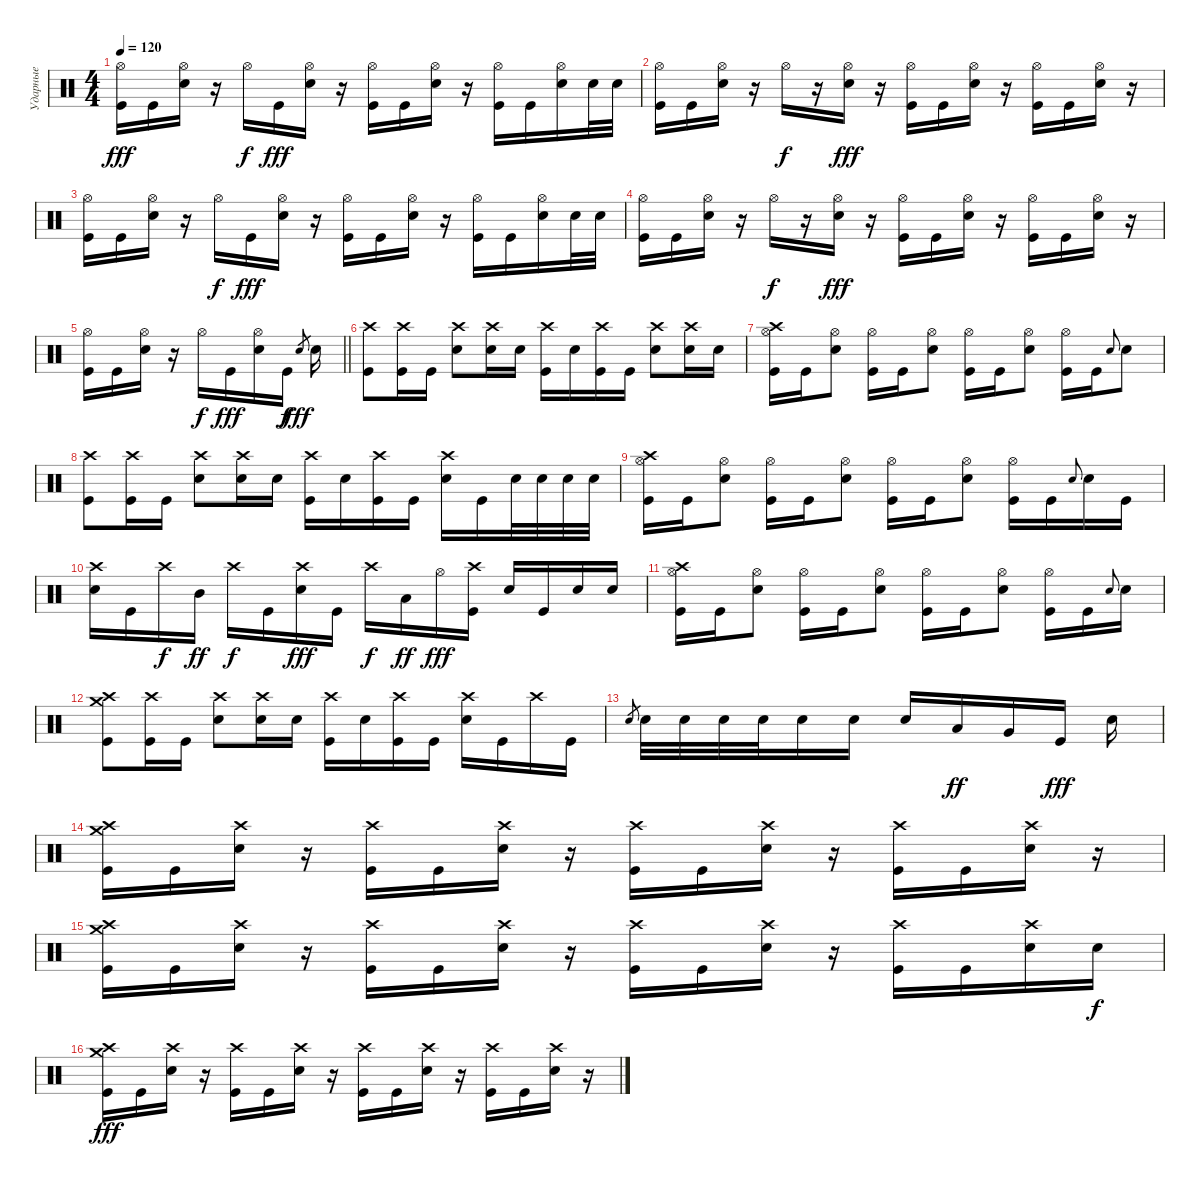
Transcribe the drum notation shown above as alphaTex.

\track ("Ударные" "Ударные") {instrument percussion}
\staff {score}
\articulation defaults
\ts (4 4)
\tempo 120
\clef neutral
\ks c
("Hi-Hat (open)" "Kick (hit)").16{dy fff} "Kick (hit)".16 ("Hi-Hat (open)" "Electric Snare (hit)").16 r.16 "Hi-Hat (open)".16{dy f} "Kick (hit)".16{dy fff} ("Hi-Hat (open)" "Electric Snare (hit)").16 r.16 ("Hi-Hat (open)" "Kick (hit)").16 "Kick (hit)".16 ("Hi-Hat (open)" "Electric Snare (hit)").16 r.16 ("Hi-Hat (open)" "Kick (hit)").16 "Kick (hit)".16 ("Hi-Hat (open)" "Electric Snare (hit)").16 "Electric Snare (hit)".32 "Electric Snare (hit)".32 |
("Hi-Hat (open)" "Kick (hit)").16 "Kick (hit)".16 ("Hi-Hat (open)" "Electric Snare (hit)").16 r.16 "Hi-Hat (open)".16{dy f} r.16 ("Hi-Hat (open)" "Electric Snare (hit)").16{dy fff} r.16 ("Hi-Hat (open)" "Kick (hit)").16 "Kick (hit)".16 ("Hi-Hat (open)" "Electric Snare (hit)").16 r.16 ("Hi-Hat (open)" "Kick (hit)").16 "Kick (hit)".16 ("Hi-Hat (open)" "Electric Snare (hit)").16 r.16 |
("Hi-Hat (open)" "Kick (hit)").16 "Kick (hit)".16 ("Hi-Hat (open)" "Electric Snare (hit)").16 r.16 "Hi-Hat (open)".16{dy f} "Kick (hit)".16{dy fff} ("Hi-Hat (open)" "Electric Snare (hit)").16 r.16 ("Hi-Hat (open)" "Kick (hit)").16 "Kick (hit)".16 ("Hi-Hat (open)" "Electric Snare (hit)").16 r.16 ("Hi-Hat (open)" "Kick (hit)").16 "Kick (hit)".16 ("Hi-Hat (open)" "Electric Snare (hit)").16 "Electric Snare (hit)".32 "Electric Snare (hit)".32 |
("Hi-Hat (open)" "Kick (hit)").16 "Kick (hit)".16 ("Hi-Hat (open)" "Electric Snare (hit)").16 r.16 "Hi-Hat (open)".16{dy f} r.16 ("Hi-Hat (open)" "Electric Snare (hit)").16{dy fff} r.16 ("Hi-Hat (open)" "Kick (hit)").16 "Kick (hit)".16 ("Hi-Hat (open)" "Electric Snare (hit)").16 r.16 ("Hi-Hat (open)" "Kick (hit)").16 "Kick (hit)".16 ("Hi-Hat (open)" "Electric Snare (hit)").16 r.16 |
\barLineRight lightlight
("Hi-Hat (open)" "Kick (hit)").16 "Kick (hit)".16 ("Hi-Hat (open)" "Electric Snare (hit)").16 r.16 "Hi-Hat (open)".16{dy f} "Kick (hit)".16{dy fff} ("Hi-Hat (open)" "Electric Snare (hit)").16 "Kick (hit)".16{dy f} "Electric Snare (hit)".8{gr dy fff} "Electric Snare (hit)".16 |
("Crash high (hit)" "Kick (hit)").8 ("Crash high (hit)" "Kick (hit)").16 "Kick (hit)".16 ("Crash high (hit)" "Electric Snare (hit)").8 ("Crash high (hit)" "Electric Snare (hit)").16 "Electric Snare (hit)".16 ("Crash high (hit)" "Kick (hit)").16 "Electric Snare (hit)".16 ("Crash high (hit)" "Kick (hit)").16 "Kick (hit)".16 ("Crash high (hit)" "Electric Snare (hit)").8 ("Crash high (hit)" "Electric Snare (hit)").16 "Electric Snare (hit)".16 |
("Hi-Hat (open)" "Crash high (hit)" "Kick (hit)").16 "Kick (hit)".16 ("Hi-Hat (open)" "Electric Snare (hit)").8 ("Hi-Hat (open)" "Kick (hit)").16 "Kick (hit)".16 ("Hi-Hat (open)" "Electric Snare (hit)").8 ("Hi-Hat (open)" "Kick (hit)").16 "Kick (hit)".16 ("Hi-Hat (open)" "Electric Snare (hit)").8 ("Hi-Hat (open)" "Kick (hit)").16 "Kick (hit)".16 "Electric Snare (hit)".8{gr onbeat} "Electric Snare (hit)".8 |
("Crash high (hit)" "Kick (hit)").8 ("Crash high (hit)" "Kick (hit)").16 "Kick (hit)".16 ("Crash high (hit)" "Electric Snare (hit)").8 ("Crash high (hit)" "Electric Snare (hit)").16 "Electric Snare (hit)".16 ("Crash high (hit)" "Kick (hit)").16 "Electric Snare (hit)".16 ("Crash high (hit)" "Kick (hit)").16 "Kick (hit)".16 ("Crash high (hit)" "Electric Snare (hit)").16 "Kick (hit)".16 "Electric Snare (hit)".32 "Electric Snare (hit)".32 "Electric Snare (hit)".32 "Electric Snare (hit)".32 |
("Hi-Hat (open)" "Crash high (hit)" "Kick (hit)").16 "Kick (hit)".16 ("Hi-Hat (open)" "Electric Snare (hit)").8 ("Hi-Hat (open)" "Kick (hit)").16 "Kick (hit)".16 ("Hi-Hat (open)" "Electric Snare (hit)").8 ("Hi-Hat (open)" "Kick (hit)").16 "Kick (hit)".16 ("Hi-Hat (open)" "Electric Snare (hit)").8 ("Hi-Hat (open)" "Kick (hit)").16 "Kick (hit)".16 "Electric Snare (hit)".8{gr onbeat} "Electric Snare (hit)".16 "Kick (hit)".16 |
("Crash high (hit)" "Electric Snare (hit)").16 "Kick (hit)".16 "Crash high (hit)".16{dy f} "Mid Tom (hit)".16{dy ff} "Crash high (hit)".16{dy f} "Kick (hit)".16 ("Crash high (hit)" "Electric Snare (hit)").16{dy fff} "Kick (hit)".16 "Crash high (hit)".16{dy f} "Low Tom (hit)".16{dy ff} "Hi-Hat (open)".16{dy fff} ("Crash high (hit)" "Kick (hit)").16 "Electric Snare (hit)".16 "Kick (hit)".16 "Electric Snare (hit)".16 "Electric Snare (hit)".16 |
("Hi-Hat (open)" "Crash high (hit)" "Kick (hit)").16 "Kick (hit)".16 ("Hi-Hat (open)" "Electric Snare (hit)").8 ("Hi-Hat (open)" "Kick (hit)").16 "Kick (hit)".16 ("Hi-Hat (open)" "Electric Snare (hit)").8 ("Hi-Hat (open)" "Kick (hit)").16 "Kick (hit)".16 ("Hi-Hat (open)" "Electric Snare (hit)").8 ("Hi-Hat (open)" "Kick (hit)").16 "Kick (hit)".16 "Electric Snare (hit)".8{gr onbeat} "Electric Snare (hit)".16 |
("Crash medium (hit)" "Crash high (hit)" "Kick (hit)").8 ("Crash high (hit)" "Kick (hit)").16 "Kick (hit)".16 ("Crash high (hit)" "Electric Snare (hit)").8 ("Crash high (hit)" "Electric Snare (hit)").16 "Electric Snare (hit)".16 ("Crash high (hit)" "Kick (hit)").16 "Electric Snare (hit)".16 ("Crash high (hit)" "Kick (hit)").16 "Kick (hit)".16 ("Crash high (hit)" "Electric Snare (hit)").16 "Kick (hit)".16 "Crash high (hit)".16 "Kick (hit)".16 |
"Electric Snare (hit)".8{gr} "Electric Snare (hit)".32 "Electric Snare (hit)".32 "Electric Snare (hit)".32 "Electric Snare (hit)".32 "Electric Snare (hit)".16 "Electric Snare (hit)".16 "Electric Snare (hit)".16 "Low Tom (hit)".16{dy ff} "Very Low Tom (hit)".16 "Kick (hit)".16{dy fff} "Electric Snare (hit)".16 |
("Crash medium (hit)" "Crash high (hit)" "Kick (hit)").16 "Kick (hit)".16 ("Crash high (hit)" "Electric Snare (hit)").16 r.16 ("Crash high (hit)" "Kick (hit)").16 "Kick (hit)".16 ("Crash high (hit)" "Electric Snare (hit)").16 r.16 ("Crash high (hit)" "Kick (hit)").16 "Kick (hit)".16 ("Crash high (hit)" "Electric Snare (hit)").16 r.16 ("Crash high (hit)" "Kick (hit)").16 "Kick (hit)".16 ("Crash high (hit)" "Electric Snare (hit)").16 r.16 |
("Crash medium (hit)" "Crash high (hit)" "Kick (hit)").16 "Kick (hit)".16 ("Crash high (hit)" "Electric Snare (hit)").16 r.16 ("Crash high (hit)" "Kick (hit)").16 "Kick (hit)".16 ("Crash high (hit)" "Electric Snare (hit)").16 r.16 ("Crash high (hit)" "Kick (hit)").16 "Kick (hit)".16 ("Crash high (hit)" "Electric Snare (hit)").16 r.16 ("Crash high (hit)" "Kick (hit)").16 "Kick (hit)".16 ("Crash high (hit)" "Electric Snare (hit)").16 "Electric Snare (hit)".16{dy f} |
("Crash medium (hit)" "Crash high (hit)" "Kick (hit)").16{dy fff} "Kick (hit)".16 ("Crash high (hit)" "Electric Snare (hit)").16 r.16 ("Crash high (hit)" "Kick (hit)").16 "Kick (hit)".16 ("Crash high (hit)" "Electric Snare (hit)").16 r.16 ("Crash high (hit)" "Kick (hit)").16 "Kick (hit)".16 ("Crash high (hit)" "Electric Snare (hit)").16 r.16 ("Crash high (hit)" "Kick (hit)").16 "Kick (hit)".16 ("Crash high (hit)" "Electric Snare (hit)").16 r.16
